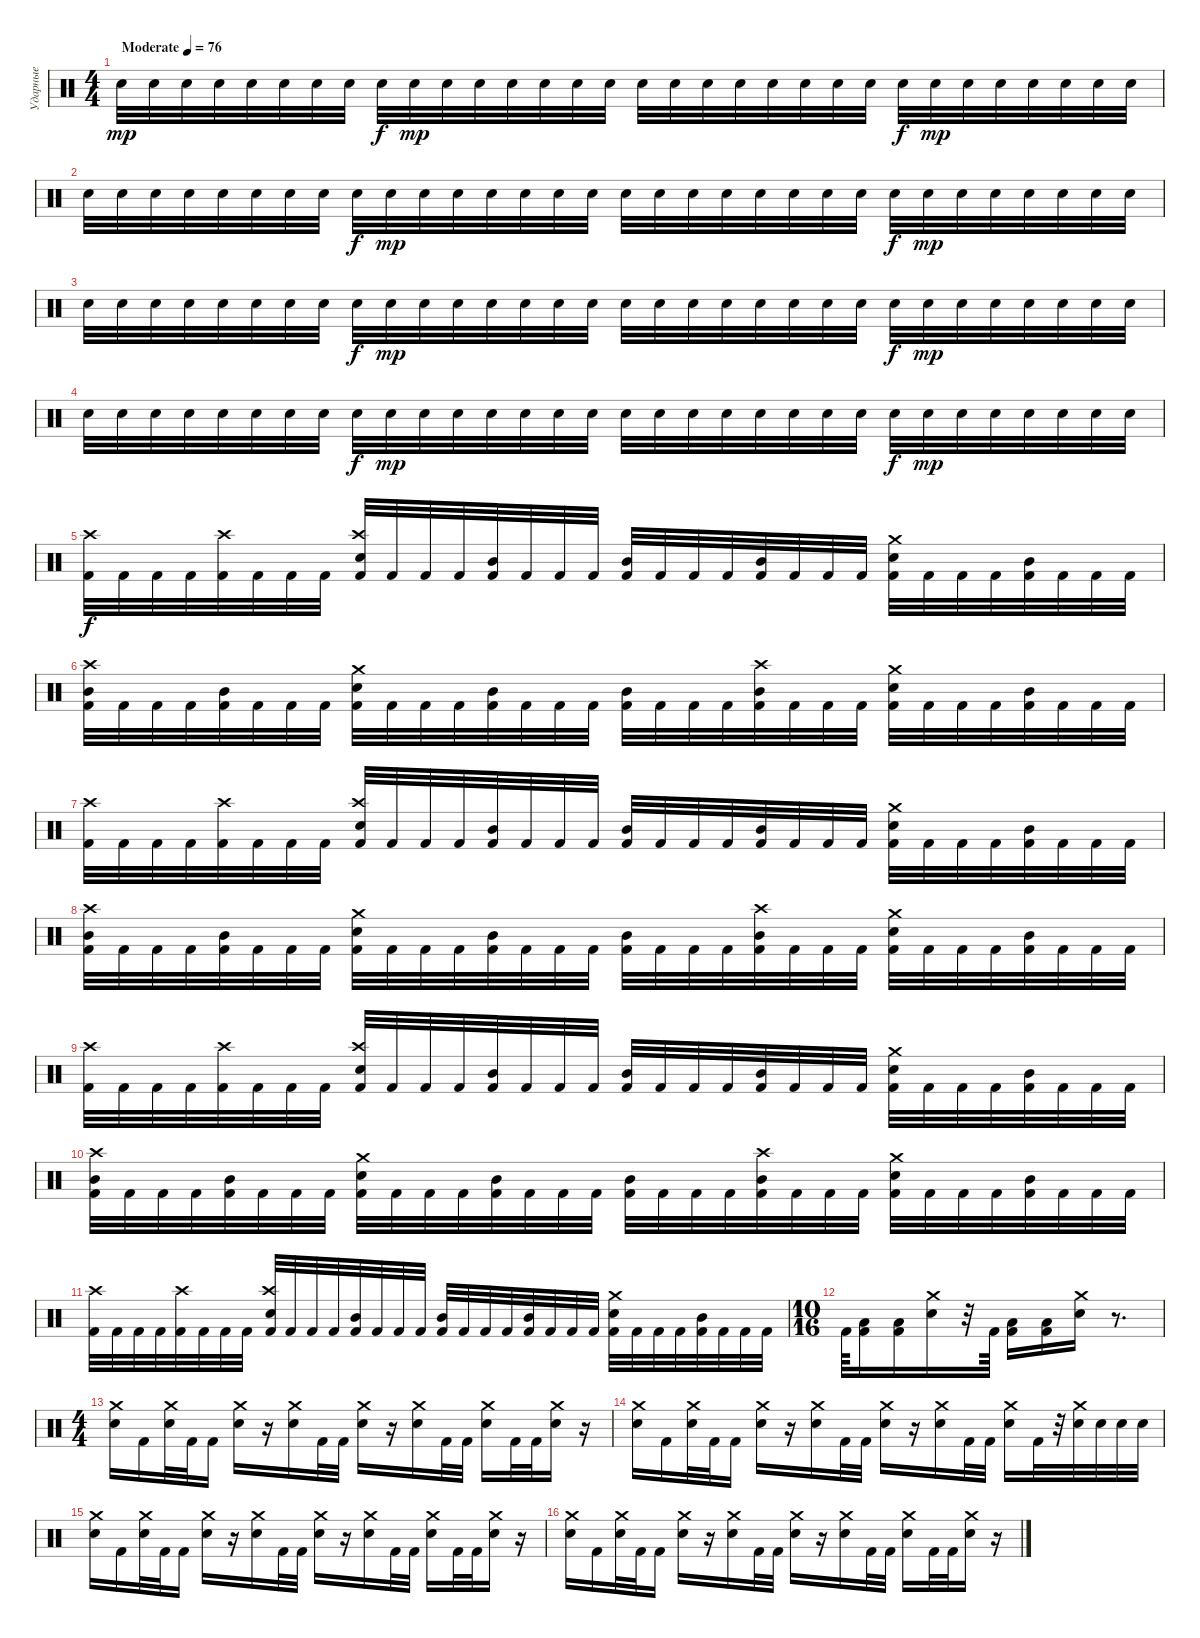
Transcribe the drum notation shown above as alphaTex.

\track ("Ударные" "Ударные") {instrument percussion}
\staff {score}
\articulation defaults
\ts (4 4)
\tempo (76 "Moderate")
\clef neutral
\ks c "Electric Snare (hit)".32{dy mp volume 12} "Electric Snare (hit)".32 "Electric Snare (hit)".32 "Electric Snare (hit)".32 "Electric Snare (hit)".32 "Electric Snare (hit)".32 "Electric Snare (hit)".32 "Electric Snare (hit)".32 "Electric Snare (hit)".32{dy f} "Electric Snare (hit)".32{dy mp} "Electric Snare (hit)".32 "Electric Snare (hit)".32 "Electric Snare (hit)".32 "Electric Snare (hit)".32 "Electric Snare (hit)".32 "Electric Snare (hit)".32 "Electric Snare (hit)".32 "Electric Snare (hit)".32 "Electric Snare (hit)".32 "Electric Snare (hit)".32 "Electric Snare (hit)".32 "Electric Snare (hit)".32 "Electric Snare (hit)".32 "Electric Snare (hit)".32 "Electric Snare (hit)".32{dy f} "Electric Snare (hit)".32{dy mp} "Electric Snare (hit)".32 "Electric Snare (hit)".32 "Electric Snare (hit)".32 "Electric Snare (hit)".32 "Electric Snare (hit)".32 "Electric Snare (hit)".32
|
"Electric Snare (hit)".32 "Electric Snare (hit)".32 "Electric Snare (hit)".32 "Electric Snare (hit)".32 "Electric Snare (hit)".32 "Electric Snare (hit)".32 "Electric Snare (hit)".32 "Electric Snare (hit)".32 "Electric Snare (hit)".32{dy f} "Electric Snare (hit)".32{dy mp} "Electric Snare (hit)".32 "Electric Snare (hit)".32 "Electric Snare (hit)".32 "Electric Snare (hit)".32 "Electric Snare (hit)".32 "Electric Snare (hit)".32 "Electric Snare (hit)".32 "Electric Snare (hit)".32 "Electric Snare (hit)".32 "Electric Snare (hit)".32 "Electric Snare (hit)".32 "Electric Snare (hit)".32 "Electric Snare (hit)".32 "Electric Snare (hit)".32 "Electric Snare (hit)".32{dy f} "Electric Snare (hit)".32{dy mp} "Electric Snare (hit)".32 "Electric Snare (hit)".32 "Electric Snare (hit)".32 "Electric Snare (hit)".32 "Electric Snare (hit)".32 "Electric Snare (hit)".32 |
"Electric Snare (hit)".32 "Electric Snare (hit)".32 "Electric Snare (hit)".32 "Electric Snare (hit)".32 "Electric Snare (hit)".32 "Electric Snare (hit)".32 "Electric Snare (hit)".32 "Electric Snare (hit)".32 "Electric Snare (hit)".32{dy f} "Electric Snare (hit)".32{dy mp} "Electric Snare (hit)".32 "Electric Snare (hit)".32 "Electric Snare (hit)".32 "Electric Snare (hit)".32 "Electric Snare (hit)".32 "Electric Snare (hit)".32 "Electric Snare (hit)".32 "Electric Snare (hit)".32 "Electric Snare (hit)".32 "Electric Snare (hit)".32 "Electric Snare (hit)".32 "Electric Snare (hit)".32 "Electric Snare (hit)".32 "Electric Snare (hit)".32 "Electric Snare (hit)".32{dy f} "Electric Snare (hit)".32{dy mp} "Electric Snare (hit)".32 "Electric Snare (hit)".32 "Electric Snare (hit)".32 "Electric Snare (hit)".32 "Electric Snare (hit)".32 "Electric Snare (hit)".32 |
"Electric Snare (hit)".32 "Electric Snare (hit)".32 "Electric Snare (hit)".32 "Electric Snare (hit)".32 "Electric Snare (hit)".32 "Electric Snare (hit)".32 "Electric Snare (hit)".32 "Electric Snare (hit)".32 "Electric Snare (hit)".32{dy f} "Electric Snare (hit)".32{dy mp} "Electric Snare (hit)".32 "Electric Snare (hit)".32 "Electric Snare (hit)".32 "Electric Snare (hit)".32 "Electric Snare (hit)".32 "Electric Snare (hit)".32 "Electric Snare (hit)".32 "Electric Snare (hit)".32 "Electric Snare (hit)".32 "Electric Snare (hit)".32 "Electric Snare (hit)".32 "Electric Snare (hit)".32 "Electric Snare (hit)".32 "Electric Snare (hit)".32 "Electric Snare (hit)".32{dy f} "Electric Snare (hit)".32{dy mp} "Electric Snare (hit)".32 "Electric Snare (hit)".32 "Electric Snare (hit)".32 "Electric Snare (hit)".32 "Electric Snare (hit)".32 "Electric Snare (hit)".32 |
("Crash high (hit)" "Kick (hit) 2").32{dy f volume 16} "Kick (hit) 2".32 "Kick (hit) 2".32 "Kick (hit) 2".32 ("Crash high (hit)" "Kick (hit) 2").32 "Kick (hit) 2".32 "Kick (hit) 2".32 "Kick (hit) 2".32 ("Crash high (hit)" "Electric Snare (hit)" "Kick (hit) 2").32 "Kick (hit) 2".32 "Kick (hit) 2".32 "Kick (hit) 2".32 ("Mid Tom (hit)" "Kick (hit) 2").32 "Kick (hit) 2".32 "Kick (hit) 2".32 "Kick (hit) 2".32 ("Mid Tom (hit)" "Kick (hit) 2").32 "Kick (hit) 2".32 "Kick (hit) 2".32 "Kick (hit) 2".32 ("Mid Tom (hit)" "Kick (hit) 2").32 "Kick (hit) 2".32 "Kick (hit) 2".32 "Kick (hit) 2".32 ("Crash medium (hit)" "Electric Snare (hit)" "Kick (hit) 2").32 "Kick (hit) 2".32 "Kick (hit) 2".32 "Kick (hit) 2".32 ("Mid Tom (hit)" "Kick (hit) 2").32 "Kick (hit) 2".32 "Kick (hit) 2".32 "Kick (hit) 2".32 |
("Crash high (hit)" "Mid Tom (hit)" "Kick (hit) 2").32 "Kick (hit) 2".32 "Kick (hit) 2".32 "Kick (hit) 2".32 ("Mid Tom (hit)" "Kick (hit) 2").32 "Kick (hit) 2".32 "Kick (hit) 2".32 "Kick (hit) 2".32 ("Crash medium (hit)" "Electric Snare (hit)" "Kick (hit) 2").32 "Kick (hit) 2".32 "Kick (hit) 2".32 "Kick (hit) 2".32 ("Mid Tom (hit)" "Kick (hit) 2").32 "Kick (hit) 2".32 "Kick (hit) 2".32 "Kick (hit) 2".32 ("Mid Tom (hit)" "Kick (hit) 2").32 "Kick (hit) 2".32 "Kick (hit) 2".32 "Kick (hit) 2".32 ("Crash high (hit)" "Mid Tom (hit)" "Kick (hit) 2").32 "Kick (hit) 2".32 "Kick (hit) 2".32 "Kick (hit) 2".32 ("Crash medium (hit)" "Electric Snare (hit)" "Kick (hit) 2").32 "Kick (hit) 2".32 "Kick (hit) 2".32 "Kick (hit) 2".32 ("Mid Tom (hit)" "Kick (hit) 2").32 "Kick (hit) 2".32 "Kick (hit) 2".32 "Kick (hit) 2".32 |
("Crash high (hit)" "Kick (hit) 2").32 "Kick (hit) 2".32 "Kick (hit) 2".32 "Kick (hit) 2".32 ("Crash high (hit)" "Kick (hit) 2").32 "Kick (hit) 2".32 "Kick (hit) 2".32 "Kick (hit) 2".32 ("Crash high (hit)" "Electric Snare (hit)" "Kick (hit) 2").32 "Kick (hit) 2".32 "Kick (hit) 2".32 "Kick (hit) 2".32 ("Mid Tom (hit)" "Kick (hit) 2").32 "Kick (hit) 2".32 "Kick (hit) 2".32 "Kick (hit) 2".32 ("Mid Tom (hit)" "Kick (hit) 2").32 "Kick (hit) 2".32 "Kick (hit) 2".32 "Kick (hit) 2".32 ("Mid Tom (hit)" "Kick (hit) 2").32 "Kick (hit) 2".32 "Kick (hit) 2".32 "Kick (hit) 2".32 ("Crash medium (hit)" "Electric Snare (hit)" "Kick (hit) 2").32 "Kick (hit) 2".32 "Kick (hit) 2".32 "Kick (hit) 2".32 ("Mid Tom (hit)" "Kick (hit) 2").32 "Kick (hit) 2".32 "Kick (hit) 2".32 "Kick (hit) 2".32 |
("Crash high (hit)" "Mid Tom (hit)" "Kick (hit) 2").32 "Kick (hit) 2".32 "Kick (hit) 2".32 "Kick (hit) 2".32 ("Mid Tom (hit)" "Kick (hit) 2").32 "Kick (hit) 2".32 "Kick (hit) 2".32 "Kick (hit) 2".32 ("Crash medium (hit)" "Electric Snare (hit)" "Kick (hit) 2").32 "Kick (hit) 2".32 "Kick (hit) 2".32 "Kick (hit) 2".32 ("Mid Tom (hit)" "Kick (hit) 2").32 "Kick (hit) 2".32 "Kick (hit) 2".32 "Kick (hit) 2".32 ("Mid Tom (hit)" "Kick (hit) 2").32 "Kick (hit) 2".32 "Kick (hit) 2".32 "Kick (hit) 2".32 ("Crash high (hit)" "Mid Tom (hit)" "Kick (hit) 2").32 "Kick (hit) 2".32 "Kick (hit) 2".32 "Kick (hit) 2".32 ("Crash medium (hit)" "Electric Snare (hit)" "Kick (hit) 2").32 "Kick (hit) 2".32 "Kick (hit) 2".32 "Kick (hit) 2".32 ("Mid Tom (hit)" "Kick (hit) 2").32 "Kick (hit) 2".32 "Kick (hit) 2".32 "Kick (hit) 2".32 |
("Crash high (hit)" "Kick (hit) 2").32 "Kick (hit) 2".32 "Kick (hit) 2".32 "Kick (hit) 2".32 ("Crash high (hit)" "Kick (hit) 2").32 "Kick (hit) 2".32 "Kick (hit) 2".32 "Kick (hit) 2".32 ("Crash high (hit)" "Electric Snare (hit)" "Kick (hit) 2").32 "Kick (hit) 2".32 "Kick (hit) 2".32 "Kick (hit) 2".32 ("Mid Tom (hit)" "Kick (hit) 2").32 "Kick (hit) 2".32 "Kick (hit) 2".32 "Kick (hit) 2".32 ("Mid Tom (hit)" "Kick (hit) 2").32 "Kick (hit) 2".32 "Kick (hit) 2".32 "Kick (hit) 2".32 ("Mid Tom (hit)" "Kick (hit) 2").32 "Kick (hit) 2".32 "Kick (hit) 2".32 "Kick (hit) 2".32 ("Crash medium (hit)" "Electric Snare (hit)" "Kick (hit) 2").32 "Kick (hit) 2".32 "Kick (hit) 2".32 "Kick (hit) 2".32 ("Mid Tom (hit)" "Kick (hit) 2").32 "Kick (hit) 2".32 "Kick (hit) 2".32 "Kick (hit) 2".32 |
("Crash high (hit)" "Mid Tom (hit)" "Kick (hit) 2").32 "Kick (hit) 2".32 "Kick (hit) 2".32 "Kick (hit) 2".32 ("Mid Tom (hit)" "Kick (hit) 2").32 "Kick (hit) 2".32 "Kick (hit) 2".32 "Kick (hit) 2".32 ("Crash medium (hit)" "Electric Snare (hit)" "Kick (hit) 2").32 "Kick (hit) 2".32 "Kick (hit) 2".32 "Kick (hit) 2".32 ("Mid Tom (hit)" "Kick (hit) 2").32 "Kick (hit) 2".32 "Kick (hit) 2".32 "Kick (hit) 2".32 ("Mid Tom (hit)" "Kick (hit) 2").32 "Kick (hit) 2".32 "Kick (hit) 2".32 "Kick (hit) 2".32 ("Crash high (hit)" "Mid Tom (hit)" "Kick (hit) 2").32 "Kick (hit) 2".32 "Kick (hit) 2".32 "Kick (hit) 2".32 ("Crash medium (hit)" "Electric Snare (hit)" "Kick (hit) 2").32 "Kick (hit) 2".32 "Kick (hit) 2".32 "Kick (hit) 2".32 ("Mid Tom (hit)" "Kick (hit) 2").32 "Kick (hit) 2".32 "Kick (hit) 2".32 "Kick (hit) 2".32 |
("Crash high (hit)" "Kick (hit) 2").32 "Kick (hit) 2".32 "Kick (hit) 2".32 "Kick (hit) 2".32 ("Crash high (hit)" "Kick (hit) 2").32 "Kick (hit) 2".32 "Kick (hit) 2".32 "Kick (hit) 2".32 ("Crash high (hit)" "Electric Snare (hit)" "Kick (hit) 2").32 "Kick (hit) 2".32 "Kick (hit) 2".32 "Kick (hit) 2".32 ("Mid Tom (hit)" "Kick (hit) 2").32 "Kick (hit) 2".32 "Kick (hit) 2".32 "Kick (hit) 2".32 ("Mid Tom (hit)" "Kick (hit) 2").32 "Kick (hit) 2".32 "Kick (hit) 2".32 "Kick (hit) 2".32 ("Mid Tom (hit)" "Kick (hit) 2").32 "Kick (hit) 2".32 "Kick (hit) 2".32 "Kick (hit) 2".32 ("Crash medium (hit)" "Electric Snare (hit)" "Kick (hit) 2").32 "Kick (hit) 2".32 "Kick (hit) 2".32 "Kick (hit) 2".32 ("Mid Tom (hit)" "Kick (hit) 2").32 "Kick (hit) 2".32 "Kick (hit) 2".32 "Kick (hit) 2".32 |
\ts (10 16)
"Kick (hit) 2".64 ("Low Tom (hit)" "Kick (hit) 2").16 ("Low Tom (hit)" "Kick (hit) 2").16 ("Crash medium (hit)" "Electric Snare (hit)").16 r.32 "Kick (hit) 2".64 ("Low Tom (hit)" "Kick (hit) 2").16 ("Low Tom (hit)" "Kick (hit) 2").16 ("Crash medium (hit)" "Electric Snare (hit)").16 r.8{d} |
\ts (4 4)
("Crash medium (hit)" "Electric Snare (hit)").16 "Kick (hit) 2".16 ("Crash medium (hit)" "Electric Snare (hit)").32 "Kick (hit) 2".32 "Kick (hit) 2".16 ("Crash medium (hit)" "Electric Snare (hit)").16 r.16 ("Crash medium (hit)" "Electric Snare (hit)").16 "Kick (hit) 2".32 "Kick (hit) 2".32 ("Crash medium (hit)" "Electric Snare (hit)").16 r.16 ("Crash medium (hit)" "Electric Snare (hit)").16 "Kick (hit) 2".32 "Kick (hit) 2".32 ("Crash medium (hit)" "Electric Snare (hit)").16 "Kick (hit) 2".32 "Kick (hit) 2".32 ("Crash medium (hit)" "Electric Snare (hit)").16 r.16 |
("Crash medium (hit)" "Electric Snare (hit)").16 "Kick (hit) 2".16 ("Crash medium (hit)" "Electric Snare (hit)").32 "Kick (hit) 2".32 "Kick (hit) 2".16 ("Crash medium (hit)" "Electric Snare (hit)").16 r.16 ("Crash medium (hit)" "Electric Snare (hit)").16 "Kick (hit) 2".32 "Kick (hit) 2".32 ("Crash medium (hit)" "Electric Snare (hit)").16 r.16 ("Crash medium (hit)" "Electric Snare (hit)").16 "Kick (hit) 2".32 "Kick (hit) 2".32 ("Crash medium (hit)" "Electric Snare (hit)").16 "Kick (hit) 2".32 r.32 ("Crash medium (hit)" "Electric Snare (hit)").32 "Electric Snare (hit)".32 "Electric Snare (hit)".32 "Electric Snare (hit)".32 |
("Crash medium (hit)" "Electric Snare (hit)").16 "Kick (hit) 2".16 ("Crash medium (hit)" "Electric Snare (hit)").32 "Kick (hit) 2".32 "Kick (hit) 2".16 ("Crash medium (hit)" "Electric Snare (hit)").16 r.16 ("Crash medium (hit)" "Electric Snare (hit)").16 "Kick (hit) 2".32 "Kick (hit) 2".32 ("Crash medium (hit)" "Electric Snare (hit)").16 r.16 ("Crash medium (hit)" "Electric Snare (hit)").16 "Kick (hit) 2".32 "Kick (hit) 2".32 ("Crash medium (hit)" "Electric Snare (hit)").16 "Kick (hit) 2".32 "Kick (hit) 2".32 ("Crash medium (hit)" "Electric Snare (hit)").16 r.16 |
("Crash medium (hit)" "Electric Snare (hit)").16 "Kick (hit) 2".16 ("Crash medium (hit)" "Electric Snare (hit)").32 "Kick (hit) 2".32 "Kick (hit) 2".16 ("Crash medium (hit)" "Electric Snare (hit)").16 r.16 ("Crash medium (hit)" "Electric Snare (hit)").16 "Kick (hit) 2".32 "Kick (hit) 2".32 ("Crash medium (hit)" "Electric Snare (hit)").16 r.16 ("Crash medium (hit)" "Electric Snare (hit)").16 "Kick (hit) 2".32 "Kick (hit) 2".32 ("Crash medium (hit)" "Electric Snare (hit)").16 "Kick (hit) 2".32 "Kick (hit) 2".32 ("Crash medium (hit)" "Electric Snare (hit)").16 r.16
